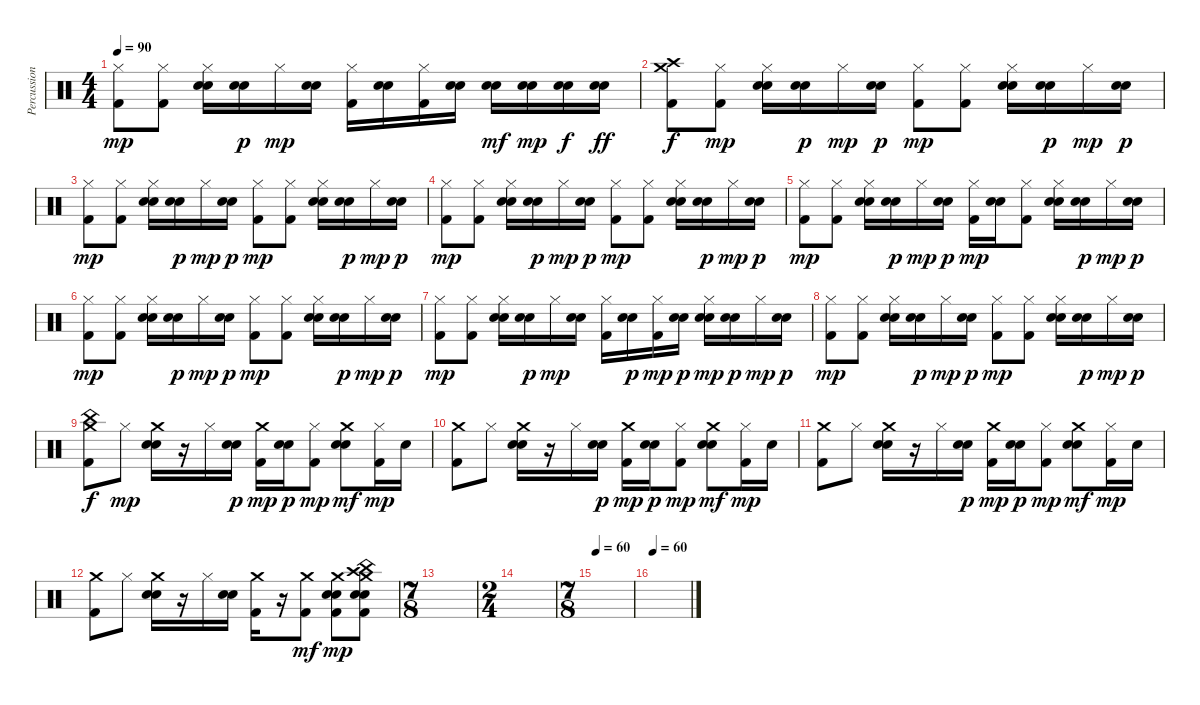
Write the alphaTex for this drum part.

\track ("Percussion" "Percussion") {instrument percussion}
\staff {score}
\articulation defaults
\ts (4 4)
\tempo 90
\clef neutral
\ks c
("Hi-Hat (closed)" "Kick (hit) 2").8{dy mp} ("Hi-Hat (closed)" "Kick (hit) 2").8 ("Hi-Hat (closed)" "Electric Snare (hit)" "Snare (hit) 2").16 ("Electric Snare (hit)" "Snare (hit) 2").16{dy p} "Hi-Hat (closed)".16{dy mp} ("Electric Snare (hit)" "Snare (hit) 2").16 ("Hi-Hat (closed)" "Kick (hit) 2").16 ("Electric Snare (hit)" "Snare (hit) 2").16 ("Hi-Hat (closed)" "Kick (hit) 2").16 ("Electric Snare (hit)" "Snare (hit) 2").16 ("Electric Snare (hit)" "Snare (hit) 2").16{dy mf} ("Electric Snare (hit)" "Snare (hit) 2").16{dy mp} ("Electric Snare (hit)" "Snare (hit) 2").16{dy f} ("Electric Snare (hit)" "Snare (hit) 2").16{dy ff} |
("Crash high (hit)" "Crash medium (hit)" "Kick (hit) 2").8{dy f} ("Hi-Hat (closed)" "Kick (hit) 2").8{dy mp} ("Hi-Hat (closed)" "Electric Snare (hit)" "Snare (hit) 2").16 ("Electric Snare (hit)" "Snare (hit) 2").16{dy p} "Hi-Hat (closed)".16{dy mp} ("Electric Snare (hit)" "Snare (hit) 2").16{dy p} ("Hi-Hat (closed)" "Kick (hit) 2").8{dy mp} ("Hi-Hat (closed)" "Kick (hit) 2").8 ("Hi-Hat (closed)" "Electric Snare (hit)" "Snare (hit) 2").16 ("Electric Snare (hit)" "Snare (hit) 2").16{dy p} "Hi-Hat (closed)".16{dy mp} ("Electric Snare (hit)" "Snare (hit) 2").16{dy p} |
("Hi-Hat (closed)" "Kick (hit) 2").8{dy mp} ("Hi-Hat (closed)" "Kick (hit) 2").8 ("Hi-Hat (closed)" "Electric Snare (hit)" "Snare (hit) 2").16 ("Electric Snare (hit)" "Snare (hit) 2").16{dy p} "Hi-Hat (closed)".16{dy mp} ("Electric Snare (hit)" "Snare (hit) 2").16{dy p} ("Hi-Hat (closed)" "Kick (hit) 2").8{dy mp} ("Hi-Hat (closed)" "Kick (hit) 2").8 ("Hi-Hat (closed)" "Electric Snare (hit)" "Snare (hit) 2").16 ("Electric Snare (hit)" "Snare (hit) 2").16{dy p} "Hi-Hat (closed)".16{dy mp} ("Electric Snare (hit)" "Snare (hit) 2").16{dy p} |
("Hi-Hat (closed)" "Kick (hit) 2").8{dy mp} ("Hi-Hat (closed)" "Kick (hit) 2").8 ("Hi-Hat (closed)" "Electric Snare (hit)" "Snare (hit) 2").16 ("Electric Snare (hit)" "Snare (hit) 2").16{dy p} "Hi-Hat (closed)".16{dy mp} ("Electric Snare (hit)" "Snare (hit) 2").16{dy p} ("Hi-Hat (closed)" "Kick (hit) 2").8{dy mp} ("Hi-Hat (closed)" "Kick (hit) 2").8 ("Hi-Hat (closed)" "Electric Snare (hit)" "Snare (hit) 2").16 ("Electric Snare (hit)" "Snare (hit) 2").16{dy p} "Hi-Hat (closed)".16{dy mp} ("Electric Snare (hit)" "Snare (hit) 2").16{dy p} |
("Hi-Hat (closed)" "Kick (hit) 2").8{dy mp} ("Hi-Hat (closed)" "Kick (hit) 2").8 ("Hi-Hat (closed)" "Electric Snare (hit)" "Snare (hit) 2").16 ("Electric Snare (hit)" "Snare (hit) 2").16{dy p} "Hi-Hat (closed)".16{dy mp} ("Electric Snare (hit)" "Snare (hit) 2").16{dy p} ("Hi-Hat (closed)" "Kick (hit) 2").16{dy mp} ("Electric Snare (hit)" "Snare (hit) 2").16 ("Hi-Hat (closed)" "Kick (hit) 2").8 ("Hi-Hat (closed)" "Electric Snare (hit)" "Snare (hit) 2").16 ("Electric Snare (hit)" "Snare (hit) 2").16{dy p} "Hi-Hat (closed)".16{dy mp} ("Electric Snare (hit)" "Snare (hit) 2").16{dy p} |
("Hi-Hat (closed)" "Kick (hit) 2").8{dy mp} ("Hi-Hat (closed)" "Kick (hit) 2").8 ("Hi-Hat (closed)" "Electric Snare (hit)" "Snare (hit) 2").16 ("Electric Snare (hit)" "Snare (hit) 2").16{dy p} "Hi-Hat (closed)".16{dy mp} ("Electric Snare (hit)" "Snare (hit) 2").16{dy p} ("Hi-Hat (closed)" "Kick (hit) 2").8{dy mp} ("Hi-Hat (closed)" "Kick (hit) 2").8 ("Hi-Hat (closed)" "Electric Snare (hit)" "Snare (hit) 2").16 ("Electric Snare (hit)" "Snare (hit) 2").16{dy p} "Hi-Hat (closed)".16{dy mp} ("Electric Snare (hit)" "Snare (hit) 2").16{dy p} |
("Hi-Hat (closed)" "Kick (hit) 2").8{dy mp} ("Hi-Hat (closed)" "Kick (hit) 2").8 ("Hi-Hat (closed)" "Electric Snare (hit)" "Snare (hit) 2").16 ("Electric Snare (hit)" "Snare (hit) 2").16{dy p} "Hi-Hat (closed)".16{dy mp} ("Electric Snare (hit)" "Snare (hit) 2").16 ("Hi-Hat (closed)" "Kick (hit) 2").16 ("Electric Snare (hit)" "Snare (hit) 2").16{dy p} ("Hi-Hat (closed)" "Kick (hit) 2").16{dy mp} ("Electric Snare (hit)" "Snare (hit) 2").16{dy p} ("Hi-Hat (closed)" "Electric Snare (hit)" "Snare (hit) 2").16{dy mp} ("Electric Snare (hit)" "Snare (hit) 2").16{dy p} "Hi-Hat (closed)".16{dy mp} ("Electric Snare (hit)" "Snare (hit) 2").16{dy p} |
("Hi-Hat (closed)" "Kick (hit) 2").8{dy mp} ("Hi-Hat (closed)" "Kick (hit) 2").8 ("Hi-Hat (closed)" "Electric Snare (hit)" "Snare (hit) 2").16 ("Electric Snare (hit)" "Snare (hit) 2").16{dy p} "Hi-Hat (closed)".16{dy mp} ("Electric Snare (hit)" "Snare (hit) 2").16{dy p} ("Hi-Hat (closed)" "Kick (hit) 2").8{dy mp} ("Hi-Hat (closed)" "Kick (hit) 2").8 ("Hi-Hat (closed)" "Electric Snare (hit)" "Snare (hit) 2").16 ("Electric Snare (hit)" "Snare (hit) 2").16{dy p} "Hi-Hat (closed)".16{dy mp} ("Electric Snare (hit)" "Snare (hit) 2").16{dy p} |
("China (hit)" "Crash medium (hit)" "Kick (hit) 2").8{dy f} "Hi-Hat (closed)".8{dy mp} ("Crash medium (hit)" "Electric Snare (hit)" "Snare (hit) 2").16 r.16 "Hi-Hat (closed)".16 ("Electric Snare (hit)" "Snare (hit) 2").16{dy p} ("Crash medium (hit)" "Kick (hit) 2").16{dy mp} ("Electric Snare (hit)" "Snare (hit) 2").16{dy p} ("Hi-Hat (closed)" "Kick (hit) 2").8{dy mp} ("Crash medium (hit)" "Electric Snare (hit)" "Snare (hit) 2").8{dy mf} ("Hi-Hat (closed)" "Kick (hit) 2").16{dy mp} "Snare (hit) 2".16 |
("Crash medium (hit)" "Kick (hit) 2").8 "Hi-Hat (closed)".8 ("Crash medium (hit)" "Electric Snare (hit)" "Snare (hit) 2").16 r.16 "Hi-Hat (closed)".16 ("Electric Snare (hit)" "Snare (hit) 2").16{dy p} ("Crash medium (hit)" "Kick (hit) 2").16{dy mp} ("Electric Snare (hit)" "Snare (hit) 2").16{dy p} ("Hi-Hat (closed)" "Kick (hit) 2").8{dy mp} ("Crash medium (hit)" "Electric Snare (hit)" "Snare (hit) 2").8{dy mf} ("Hi-Hat (closed)" "Kick (hit) 2").16{dy mp} "Snare (hit) 2".16 |
("Crash medium (hit)" "Kick (hit) 2").8 "Hi-Hat (closed)".8 ("Crash medium (hit)" "Electric Snare (hit)" "Snare (hit) 2").16 r.16 "Hi-Hat (closed)".16 ("Electric Snare (hit)" "Snare (hit) 2").16{dy p} ("Crash medium (hit)" "Kick (hit) 2").16{dy mp} ("Electric Snare (hit)" "Snare (hit) 2").16{dy p} ("Hi-Hat (closed)" "Kick (hit) 2").8{dy mp} ("Crash medium (hit)" "Electric Snare (hit)" "Snare (hit) 2").8{dy mf} ("Hi-Hat (closed)" "Kick (hit) 2").16{dy mp} "Snare (hit) 2".16 |
("Crash medium (hit)" "Kick (hit) 2").8 "Hi-Hat (closed)".8 ("Crash medium (hit)" "Electric Snare (hit)" "Snare (hit) 2").16 r.16 "Hi-Hat (closed)".16 ("Electric Snare (hit)" "Snare (hit) 2").16 ("Crash medium (hit)" "Kick (hit) 2").16 r.16 ("Crash medium (hit)" "Kick (hit) 2").8{dy mf} ("Crash medium (hit)" "Electric Snare (hit)" "Snare (hit) 2" "Kick (hit) 2").8{dy mp} ("Crash medium (hit)" "Crash high (hit)" "China (hit)" "Snare (hit) 2" "Electric Snare (hit)" "Kick (hit) 2").8 |
\ts (7 8)
|
\ts (2 4)
|
\ts (7 8)
\tempo 60
|
\tempo 60
